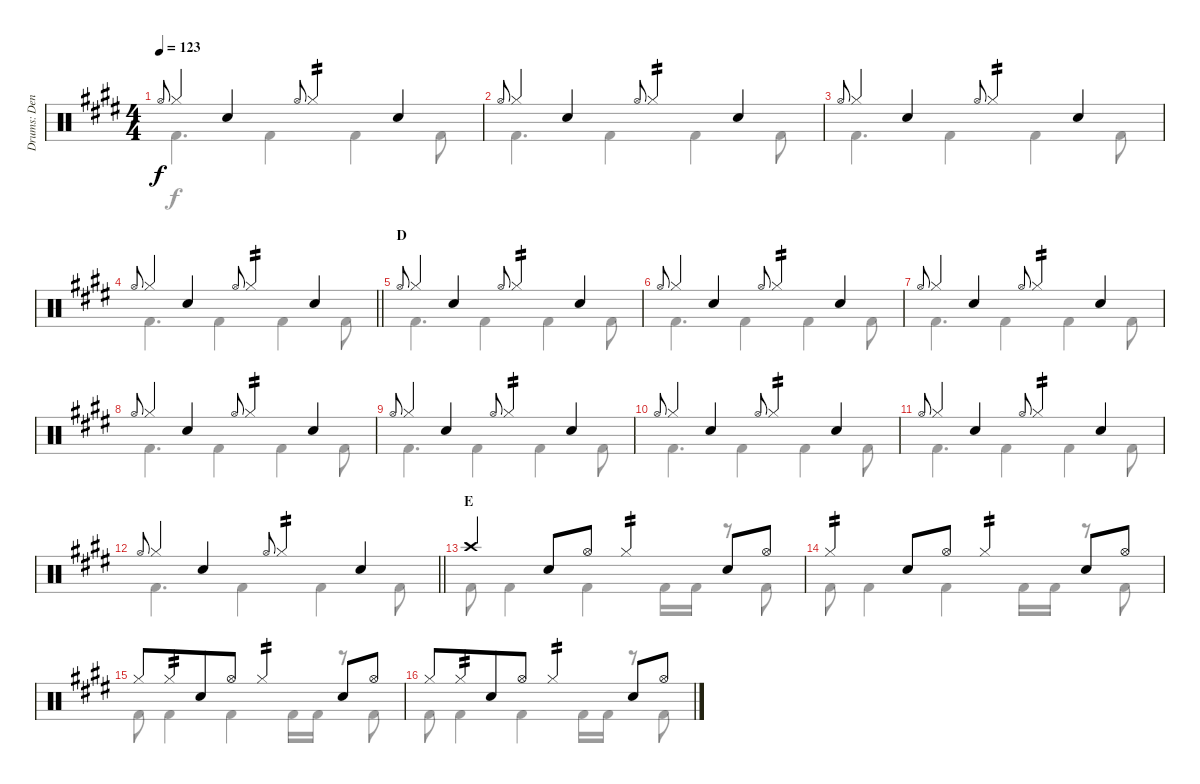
\track ("Drums: Denny" "Drums: Den") {instrument percussion}
\staff {score}
\articulation defaults
\voice
\ts (4 4)
\tempo 123
\clef neutral
\ks e "Hi-Hat (open)".8{gr onbeat dy f} "Hi-Hat (closed)".4 "Snare (hit) 2".4 "Hi-Hat (open)".8{gr onbeat} "Hi-Hat (closed)".4{tp 2} "Snare (hit) 2".4
|
"Hi-Hat (open)".8{gr onbeat} "Hi-Hat (closed)".4 "Snare (hit) 2".4 "Hi-Hat (open)".8{gr onbeat} "Hi-Hat (closed)".4{tp 2} "Snare (hit) 2".4 |
"Hi-Hat (open)".8{gr onbeat} "Hi-Hat (closed)".4 "Snare (hit) 2".4 "Hi-Hat (open)".8{gr onbeat} "Hi-Hat (closed)".4{tp 2} "Snare (hit) 2".4 |
\barLineRight lightlight "Hi-Hat (open)".8{gr onbeat} "Hi-Hat (closed)".4 "Snare (hit) 2".4 "Hi-Hat (open)".8{gr onbeat} "Hi-Hat (closed)".4{tp 2} "Snare (hit) 2".4
|
\section ("" "D")
"Hi-Hat (open)".8{gr onbeat} "Hi-Hat (closed)".4 "Snare (hit) 2".4 "Hi-Hat (open)".8{gr onbeat} "Hi-Hat (closed)".4{tp 2} "Snare (hit) 2".4 |
"Hi-Hat (open)".8{gr onbeat} "Hi-Hat (closed)".4 "Snare (hit) 2".4 "Hi-Hat (open)".8{gr onbeat} "Hi-Hat (closed)".4{tp 2} "Snare (hit) 2".4 |
"Hi-Hat (open)".8{gr onbeat} "Hi-Hat (closed)".4 "Snare (hit) 2".4 "Hi-Hat (open)".8{gr onbeat} "Hi-Hat (closed)".4{tp 2} "Snare (hit) 2".4 |
"Hi-Hat (open)".8{gr onbeat} "Hi-Hat (closed)".4 "Snare (hit) 2".4 "Hi-Hat (open)".8{gr onbeat} "Hi-Hat (closed)".4{tp 2} "Snare (hit) 2".4 |
"Hi-Hat (open)".8{gr onbeat} "Hi-Hat (closed)".4 "Snare (hit) 2".4 "Hi-Hat (open)".8{gr onbeat} "Hi-Hat (closed)".4{tp 2} "Snare (hit) 2".4 |
"Hi-Hat (open)".8{gr onbeat} "Hi-Hat (closed)".4 "Snare (hit) 2".4 "Hi-Hat (open)".8{gr onbeat} "Hi-Hat (closed)".4{tp 2} "Snare (hit) 2".4 |
"Hi-Hat (open)".8{gr onbeat} "Hi-Hat (closed)".4 "Snare (hit) 2".4 "Hi-Hat (open)".8{gr onbeat} "Hi-Hat (closed)".4{tp 2} "Snare (hit) 2".4 |
\barLineRight lightlight "Hi-Hat (open)".8{gr onbeat} "Hi-Hat (closed)".4 "Snare (hit) 2".4 "Hi-Hat (open)".8{gr onbeat} "Hi-Hat (closed)".4{tp 2} "Snare (hit) 2".4
|
\section ("" "E")
"Crash high (hit)".4 "Snare (hit) 2".8 "Hi-Hat (open)".8 "Hi-Hat (closed)".4{tp 2} "Snare (hit) 2".8 "Hi-Hat (open)".8 |
"Hi-Hat (closed)".4{tp 2} "Snare (hit) 2".8 "Hi-Hat (open)".8 "Hi-Hat (closed)".4{tp 2} "Snare (hit) 2".8 "Hi-Hat (open)".8 |
"Hi-Hat (closed)".8 "Hi-Hat (closed)".8{tp 2 beam merge} "Snare (hit) 2".8 "Hi-Hat (open)".8 "Hi-Hat (closed)".4{tp 2} "Snare (hit) 2".8 "Hi-Hat (open)".8 |
"Hi-Hat (closed)".8 "Hi-Hat (closed)".8{tp 2 beam merge} "Snare (hit) 2".8 "Hi-Hat (open)".8 "Hi-Hat (closed)".4{tp 2} "Snare (hit) 2".8 "Hi-Hat (open)".8
\voice
\clef neutral
\ottava regular
\simile none
\ks e "Kick (hit) 2".4{d dy f} "Kick (hit) 2".4 "Kick (hit) 2".4 "Kick (hit) 2".8
|
"Kick (hit) 2".4{d} "Kick (hit) 2".4 "Kick (hit) 2".4 "Kick (hit) 2".8 |
"Kick (hit) 2".4{d} "Kick (hit) 2".4 "Kick (hit) 2".4 "Kick (hit) 2".8 |
\barLineRight lightlight "Kick (hit) 2".4{d} "Kick (hit) 2".4 "Kick (hit) 2".4 "Kick (hit) 2".8
|
"Kick (hit) 2".4{d} "Kick (hit) 2".4 "Kick (hit) 2".4 "Kick (hit) 2".8 |
"Kick (hit) 2".4{d} "Kick (hit) 2".4 "Kick (hit) 2".4 "Kick (hit) 2".8 |
"Kick (hit) 2".4{d} "Kick (hit) 2".4 "Kick (hit) 2".4 "Kick (hit) 2".8 |
"Kick (hit) 2".4{d} "Kick (hit) 2".4 "Kick (hit) 2".4 "Kick (hit) 2".8 |
"Kick (hit) 2".4{d} "Kick (hit) 2".4 "Kick (hit) 2".4 "Kick (hit) 2".8 |
"Kick (hit) 2".4{d} "Kick (hit) 2".4 "Kick (hit) 2".4 "Kick (hit) 2".8 |
"Kick (hit) 2".4{d} "Kick (hit) 2".4 "Kick (hit) 2".4 "Kick (hit) 2".8 |
\barLineRight lightlight "Kick (hit) 2".4{d} "Kick (hit) 2".4 "Kick (hit) 2".4 "Kick (hit) 2".8
|
"Kick (hit) 2".8 "Kick (hit) 2".4 "Kick (hit) 2".4 "Kick (hit) 2".16 "Kick (hit) 2".16 r.8 "Kick (hit) 2".8 |
"Kick (hit) 2".8 "Kick (hit) 2".4 "Kick (hit) 2".4 "Kick (hit) 2".16 "Kick (hit) 2".16 r.8 "Kick (hit) 2".8 |
"Kick (hit) 2".8 "Kick (hit) 2".4 "Kick (hit) 2".4 "Kick (hit) 2".16 "Kick (hit) 2".16 r.8 "Kick (hit) 2".8 |
"Kick (hit) 2".8 "Kick (hit) 2".4 "Kick (hit) 2".4 "Kick (hit) 2".16 "Kick (hit) 2".16 r.8 "Kick (hit) 2".8
